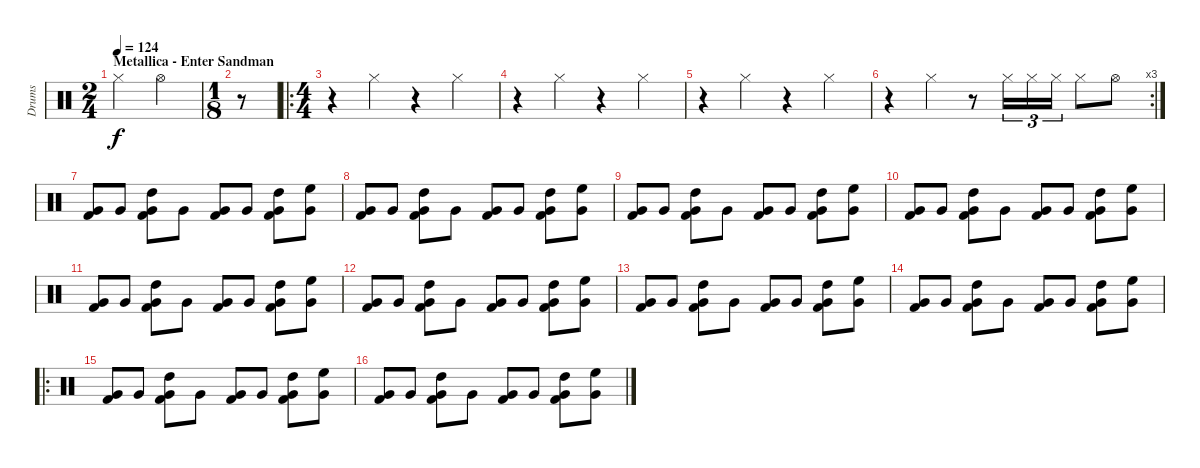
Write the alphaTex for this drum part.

\track ("Drums" "Drums") {instrument percussion}
\staff {score}
\articulation defaults
\ts (2 4)
\section ("" "Metallica - Enter Sandman")
\tempo 124
\clef neutral
\ks c "Hi-Hat (closed)".4{dy f} "Hi-Hat (open)".4
|
\ts (1 8)
r.8 |
\ro
\ts (4 4)
r.4 "Hi-Hat (closed)".4 r.4 "Hi-Hat (closed)".4 |
r.4 "Hi-Hat (closed)".4 r.4 "Hi-Hat (closed)".4 |
r.4 "Hi-Hat (closed)".4 r.4 "Hi-Hat (closed)".4 |
\rc 3
r.4 "Hi-Hat (closed)".4 r.8 "Hi-Hat (closed)".16{tu (3 2)} "Hi-Hat (closed)".16{tu (3 2)} "Hi-Hat (closed)".16{tu (3 2)} "Hi-Hat (closed)".8 "Hi-Hat (open)".8 |
("Very Low Tom (hit)" "Kick (hit) 2").8 "Very Low Tom (hit)".8 ("High Tom (hit)" "Very Low Tom (hit)" "Kick (hit) 2").8 "Very Low Tom (hit)".8 ("Very Low Tom (hit)" "Kick (hit) 2").8 "Very Low Tom (hit)".8 ("High Tom (hit)" "Very Low Tom (hit)" "Kick (hit) 2").8 ("High Floor Tom (hit)" "Very Low Tom (hit)").8 |
("Very Low Tom (hit)" "Kick (hit) 2").8 "Very Low Tom (hit)".8 ("High Tom (hit)" "Very Low Tom (hit)" "Kick (hit) 2").8 "Very Low Tom (hit)".8 ("Very Low Tom (hit)" "Kick (hit) 2").8 "Very Low Tom (hit)".8 ("High Tom (hit)" "Very Low Tom (hit)" "Kick (hit) 2").8 ("High Floor Tom (hit)" "Very Low Tom (hit)").8 |
("Very Low Tom (hit)" "Kick (hit) 2").8 "Very Low Tom (hit)".8 ("High Tom (hit)" "Very Low Tom (hit)" "Kick (hit) 2").8 "Very Low Tom (hit)".8 ("Very Low Tom (hit)" "Kick (hit) 2").8 "Very Low Tom (hit)".8 ("High Tom (hit)" "Very Low Tom (hit)" "Kick (hit) 2").8 ("High Floor Tom (hit)" "Very Low Tom (hit)").8 |
("Very Low Tom (hit)" "Kick (hit) 2").8 "Very Low Tom (hit)".8 ("High Tom (hit)" "Very Low Tom (hit)" "Kick (hit) 2").8 "Very Low Tom (hit)".8 ("Very Low Tom (hit)" "Kick (hit) 2").8 "Very Low Tom (hit)".8 ("High Tom (hit)" "Very Low Tom (hit)" "Kick (hit) 2").8 ("High Floor Tom (hit)" "Very Low Tom (hit)").8 |
("Very Low Tom (hit)" "Kick (hit) 2").8 "Very Low Tom (hit)".8 ("High Tom (hit)" "Very Low Tom (hit)" "Kick (hit) 2").8 "Very Low Tom (hit)".8 ("Very Low Tom (hit)" "Kick (hit) 2").8 "Very Low Tom (hit)".8 ("High Tom (hit)" "Very Low Tom (hit)" "Kick (hit) 2").8 ("High Floor Tom (hit)" "Very Low Tom (hit)").8 |
("Very Low Tom (hit)" "Kick (hit) 2").8 "Very Low Tom (hit)".8 ("High Tom (hit)" "Very Low Tom (hit)" "Kick (hit) 2").8 "Very Low Tom (hit)".8 ("Very Low Tom (hit)" "Kick (hit) 2").8 "Very Low Tom (hit)".8 ("High Tom (hit)" "Very Low Tom (hit)" "Kick (hit) 2").8 ("High Floor Tom (hit)" "Very Low Tom (hit)").8 |
("Very Low Tom (hit)" "Kick (hit) 2").8 "Very Low Tom (hit)".8 ("High Tom (hit)" "Very Low Tom (hit)" "Kick (hit) 2").8 "Very Low Tom (hit)".8 ("Very Low Tom (hit)" "Kick (hit) 2").8 "Very Low Tom (hit)".8 ("High Tom (hit)" "Very Low Tom (hit)" "Kick (hit) 2").8 ("High Floor Tom (hit)" "Very Low Tom (hit)").8 |
("Very Low Tom (hit)" "Kick (hit) 2").8 "Very Low Tom (hit)".8 ("High Tom (hit)" "Very Low Tom (hit)" "Kick (hit) 2").8 "Very Low Tom (hit)".8 ("Very Low Tom (hit)" "Kick (hit) 2").8 "Very Low Tom (hit)".8 ("High Tom (hit)" "Very Low Tom (hit)" "Kick (hit) 2").8 ("High Floor Tom (hit)" "Very Low Tom (hit)").8 |
\ro
("Very Low Tom (hit)" "Kick (hit) 2").8 "Very Low Tom (hit)".8 ("High Tom (hit)" "Very Low Tom (hit)" "Kick (hit) 2").8 "Very Low Tom (hit)".8 ("Very Low Tom (hit)" "Kick (hit) 2").8 "Very Low Tom (hit)".8 ("High Tom (hit)" "Very Low Tom (hit)" "Kick (hit) 2").8 ("High Floor Tom (hit)" "Very Low Tom (hit)").8 |
("Very Low Tom (hit)" "Kick (hit) 2").8 "Very Low Tom (hit)".8 ("High Tom (hit)" "Very Low Tom (hit)" "Kick (hit) 2").8 "Very Low Tom (hit)".8 ("Very Low Tom (hit)" "Kick (hit) 2").8 "Very Low Tom (hit)".8 ("High Tom (hit)" "Very Low Tom (hit)" "Kick (hit) 2").8 ("High Floor Tom (hit)" "Very Low Tom (hit)").8
